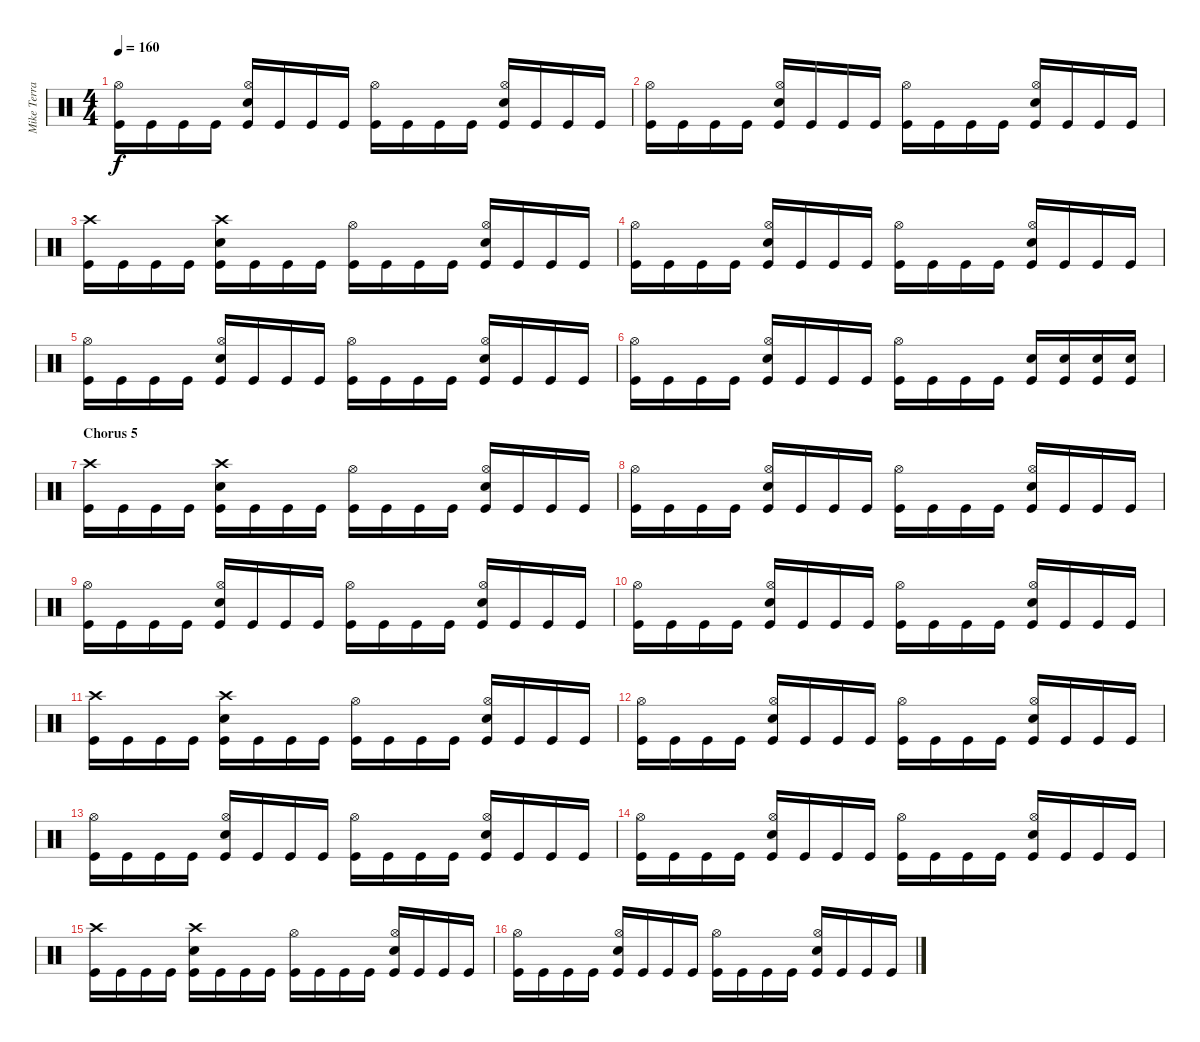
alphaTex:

\track ("Mike Terrana - Drums" "Mike Terra") {instrument percussion}
\staff {score}
\articulation defaults
\ts (4 4)
\tempo 160
\clef neutral
\ks c
("Kick (hit)" "Hi-Hat (open)").16{dy f} "Kick (hit)".16 "Kick (hit)".16 "Kick (hit)".16 ("Kick (hit)" "Electric Snare (hit)" "Hi-Hat (open)").16 "Kick (hit)".16 "Kick (hit)".16 "Kick (hit)".16 ("Kick (hit)" "Hi-Hat (open)").16 "Kick (hit)".16 "Kick (hit)".16 "Kick (hit)".16 ("Kick (hit)" "Electric Snare (hit)" "Hi-Hat (open)").16 "Kick (hit)".16 "Kick (hit)".16 "Kick (hit)".16 |
("Kick (hit)" "Hi-Hat (open)").16 "Kick (hit)".16 "Kick (hit)".16 "Kick (hit)".16 ("Kick (hit)" "Electric Snare (hit)" "Hi-Hat (open)").16 "Kick (hit)".16 "Kick (hit)".16 "Kick (hit)".16 ("Kick (hit)" "Hi-Hat (open)").16 "Kick (hit)".16 "Kick (hit)".16 "Kick (hit)".16 ("Kick (hit)" "Electric Snare (hit)" "Hi-Hat (open)").16 "Kick (hit)".16 "Kick (hit)".16 "Kick (hit)".16 |
("Kick (hit)" "Crash high (hit)").16 "Kick (hit)".16 "Kick (hit)".16 "Kick (hit)".16 ("Kick (hit)" "Electric Snare (hit)" "Crash high (hit)").16 "Kick (hit)".16 "Kick (hit)".16 "Kick (hit)".16 ("Kick (hit)" "Hi-Hat (open)").16 "Kick (hit)".16 "Kick (hit)".16 "Kick (hit)".16 ("Kick (hit)" "Electric Snare (hit)" "Hi-Hat (open)").16 "Kick (hit)".16 "Kick (hit)".16 "Kick (hit)".16 |
("Kick (hit)" "Hi-Hat (open)").16 "Kick (hit)".16 "Kick (hit)".16 "Kick (hit)".16 ("Kick (hit)" "Electric Snare (hit)" "Hi-Hat (open)").16 "Kick (hit)".16 "Kick (hit)".16 "Kick (hit)".16 ("Kick (hit)" "Hi-Hat (open)").16 "Kick (hit)".16 "Kick (hit)".16 "Kick (hit)".16 ("Kick (hit)" "Electric Snare (hit)" "Hi-Hat (open)").16 "Kick (hit)".16 "Kick (hit)".16 "Kick (hit)".16 |
("Kick (hit)" "Hi-Hat (open)").16 "Kick (hit)".16 "Kick (hit)".16 "Kick (hit)".16 ("Kick (hit)" "Electric Snare (hit)" "Hi-Hat (open)").16 "Kick (hit)".16 "Kick (hit)".16 "Kick (hit)".16 ("Kick (hit)" "Hi-Hat (open)").16 "Kick (hit)".16 "Kick (hit)".16 "Kick (hit)".16 ("Kick (hit)" "Electric Snare (hit)" "Hi-Hat (open)").16 "Kick (hit)".16 "Kick (hit)".16 "Kick (hit)".16 |
("Kick (hit)" "Hi-Hat (open)").16 "Kick (hit)".16 "Kick (hit)".16 "Kick (hit)".16 ("Kick (hit)" "Electric Snare (hit)" "Hi-Hat (open)").16 "Kick (hit)".16 "Kick (hit)".16 "Kick (hit)".16 ("Kick (hit)" "Hi-Hat (open)").16 "Kick (hit)".16 "Kick (hit)".16 "Kick (hit)".16 ("Kick (hit)" "Electric Snare (hit)").16 ("Kick (hit)" "Electric Snare (hit)").16 ("Kick (hit)" "Electric Snare (hit)").16 ("Kick (hit)" "Electric Snare (hit)").16 |
\section ("" "Chorus 5")
("Kick (hit)" "Crash high (hit)").16 "Kick (hit)".16 "Kick (hit)".16 "Kick (hit)".16 ("Kick (hit)" "Electric Snare (hit)" "Crash high (hit)").16 "Kick (hit)".16 "Kick (hit)".16 "Kick (hit)".16 ("Kick (hit)" "Hi-Hat (open)").16 "Kick (hit)".16 "Kick (hit)".16 "Kick (hit)".16 ("Kick (hit)" "Electric Snare (hit)" "Hi-Hat (open)").16 "Kick (hit)".16 "Kick (hit)".16 "Kick (hit)".16 |
("Kick (hit)" "Hi-Hat (open)").16 "Kick (hit)".16 "Kick (hit)".16 "Kick (hit)".16 ("Kick (hit)" "Electric Snare (hit)" "Hi-Hat (open)").16 "Kick (hit)".16 "Kick (hit)".16 "Kick (hit)".16 ("Kick (hit)" "Hi-Hat (open)").16 "Kick (hit)".16 "Kick (hit)".16 "Kick (hit)".16 ("Kick (hit)" "Electric Snare (hit)" "Hi-Hat (open)").16 "Kick (hit)".16 "Kick (hit)".16 "Kick (hit)".16 |
("Kick (hit)" "Hi-Hat (open)").16 "Kick (hit)".16 "Kick (hit)".16 "Kick (hit)".16 ("Kick (hit)" "Electric Snare (hit)" "Hi-Hat (open)").16 "Kick (hit)".16 "Kick (hit)".16 "Kick (hit)".16 ("Kick (hit)" "Hi-Hat (open)").16 "Kick (hit)".16 "Kick (hit)".16 "Kick (hit)".16 ("Kick (hit)" "Electric Snare (hit)" "Hi-Hat (open)").16 "Kick (hit)".16 "Kick (hit)".16 "Kick (hit)".16 |
("Kick (hit)" "Hi-Hat (open)").16 "Kick (hit)".16 "Kick (hit)".16 "Kick (hit)".16 ("Kick (hit)" "Electric Snare (hit)" "Hi-Hat (open)").16 "Kick (hit)".16 "Kick (hit)".16 "Kick (hit)".16 ("Kick (hit)" "Hi-Hat (open)").16 "Kick (hit)".16 "Kick (hit)".16 "Kick (hit)".16 ("Kick (hit)" "Electric Snare (hit)" "Hi-Hat (open)").16 "Kick (hit)".16 "Kick (hit)".16 "Kick (hit)".16 |
("Kick (hit)" "Crash high (hit)").16 "Kick (hit)".16 "Kick (hit)".16 "Kick (hit)".16 ("Kick (hit)" "Electric Snare (hit)" "Crash high (hit)").16 "Kick (hit)".16 "Kick (hit)".16 "Kick (hit)".16 ("Kick (hit)" "Hi-Hat (open)").16 "Kick (hit)".16 "Kick (hit)".16 "Kick (hit)".16 ("Kick (hit)" "Electric Snare (hit)" "Hi-Hat (open)").16 "Kick (hit)".16 "Kick (hit)".16 "Kick (hit)".16 |
("Kick (hit)" "Hi-Hat (open)").16 "Kick (hit)".16 "Kick (hit)".16 "Kick (hit)".16 ("Kick (hit)" "Electric Snare (hit)" "Hi-Hat (open)").16 "Kick (hit)".16 "Kick (hit)".16 "Kick (hit)".16 ("Kick (hit)" "Hi-Hat (open)").16 "Kick (hit)".16 "Kick (hit)".16 "Kick (hit)".16 ("Kick (hit)" "Electric Snare (hit)" "Hi-Hat (open)").16 "Kick (hit)".16 "Kick (hit)".16 "Kick (hit)".16 |
("Kick (hit)" "Hi-Hat (open)").16 "Kick (hit)".16 "Kick (hit)".16 "Kick (hit)".16 ("Kick (hit)" "Electric Snare (hit)" "Hi-Hat (open)").16 "Kick (hit)".16 "Kick (hit)".16 "Kick (hit)".16 ("Kick (hit)" "Hi-Hat (open)").16 "Kick (hit)".16 "Kick (hit)".16 "Kick (hit)".16 ("Kick (hit)" "Electric Snare (hit)" "Hi-Hat (open)").16 "Kick (hit)".16 "Kick (hit)".16 "Kick (hit)".16 |
("Kick (hit)" "Hi-Hat (open)").16 "Kick (hit)".16 "Kick (hit)".16 "Kick (hit)".16 ("Kick (hit)" "Electric Snare (hit)" "Hi-Hat (open)").16 "Kick (hit)".16 "Kick (hit)".16 "Kick (hit)".16 ("Kick (hit)" "Hi-Hat (open)").16 "Kick (hit)".16 "Kick (hit)".16 "Kick (hit)".16 ("Kick (hit)" "Electric Snare (hit)" "Hi-Hat (open)").16 "Kick (hit)".16 "Kick (hit)".16 "Kick (hit)".16 |
("Kick (hit)" "Crash high (hit)").16 "Kick (hit)".16 "Kick (hit)".16 "Kick (hit)".16 ("Kick (hit)" "Electric Snare (hit)" "Crash high (hit)").16 "Kick (hit)".16 "Kick (hit)".16 "Kick (hit)".16 ("Kick (hit)" "Hi-Hat (open)").16 "Kick (hit)".16 "Kick (hit)".16 "Kick (hit)".16 ("Kick (hit)" "Electric Snare (hit)" "Hi-Hat (open)").16 "Kick (hit)".16 "Kick (hit)".16 "Kick (hit)".16 |
("Kick (hit)" "Hi-Hat (open)").16 "Kick (hit)".16 "Kick (hit)".16 "Kick (hit)".16 ("Kick (hit)" "Electric Snare (hit)" "Hi-Hat (open)").16 "Kick (hit)".16 "Kick (hit)".16 "Kick (hit)".16 ("Kick (hit)" "Hi-Hat (open)").16 "Kick (hit)".16 "Kick (hit)".16 "Kick (hit)".16 ("Kick (hit)" "Electric Snare (hit)" "Hi-Hat (open)").16 "Kick (hit)".16 "Kick (hit)".16 "Kick (hit)".16
